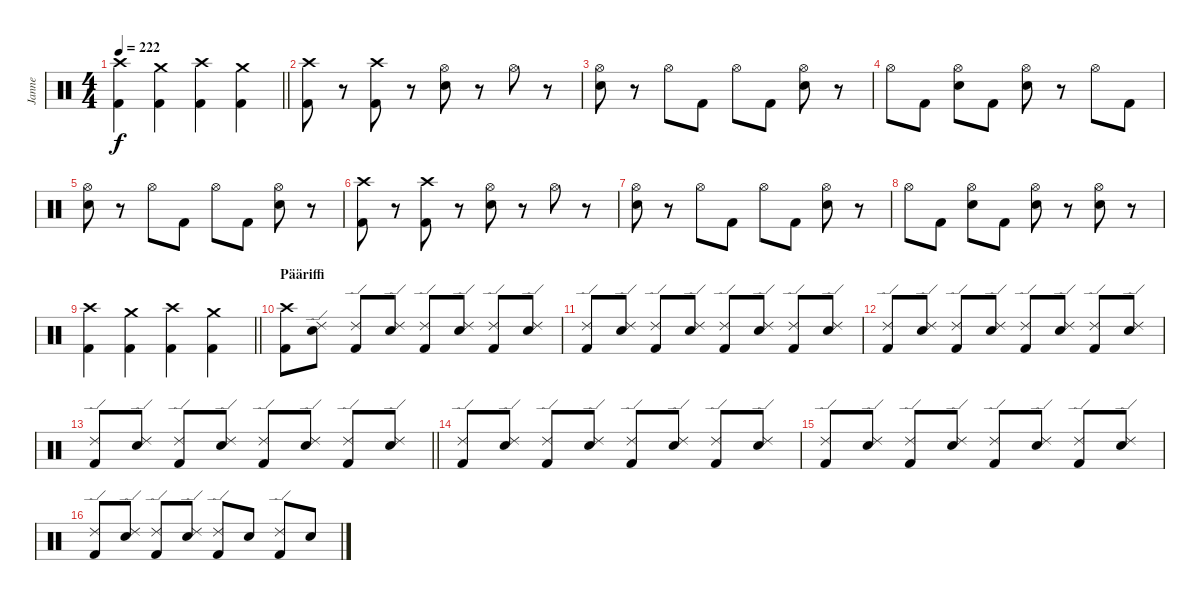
\track ("Janne" "Janne") {instrument percussion}
\staff {score}
\articulation defaults
\ts (4 4)
\tempo 222
\clef neutral
\barLineRight lightlight
\ks c
("Crash high (hit)" "Kick (hit) 2").4{dy f} ("Crash medium (hit)" "Kick (hit) 2").4 ("Crash high (hit)" "Kick (hit) 2").4 ("Crash medium (hit)" "Kick (hit) 2").4 |
("Crash high (hit)" "Kick (hit) 2").8 r.8 ("Crash high (hit)" "Kick (hit) 2").8 r.8 ("Hi-Hat (open)" "Electric Snare (hit)").8 r.8 "Hi-Hat (open)".8 r.8 |
("Hi-Hat (open)" "Electric Snare (hit)").8 r.8 "Hi-Hat (open)".8 "Kick (hit) 2".8 "Hi-Hat (open)".8 "Kick (hit) 2".8 ("Hi-Hat (open)" "Electric Snare (hit)").8 r.8 |
"Hi-Hat (open)".8 "Kick (hit) 2".8 ("Hi-Hat (open)" "Electric Snare (hit)").8 "Kick (hit) 2".8 ("Hi-Hat (open)" "Electric Snare (hit)").8 r.8 "Hi-Hat (open)".8 "Kick (hit) 2".8 |
("Hi-Hat (open)" "Electric Snare (hit)").8 r.8 "Hi-Hat (open)".8 "Kick (hit) 2".8 "Hi-Hat (open)".8 "Kick (hit) 2".8 ("Hi-Hat (open)" "Electric Snare (hit)").8 r.8 |
("Crash high (hit)" "Kick (hit) 2").8 r.8 ("Crash high (hit)" "Kick (hit) 2").8 r.8 ("Hi-Hat (open)" "Electric Snare (hit)").8 r.8 "Hi-Hat (open)".8 r.8 |
("Hi-Hat (open)" "Electric Snare (hit)").8 r.8 "Hi-Hat (open)".8 "Kick (hit) 2".8 "Hi-Hat (open)".8 "Kick (hit) 2".8 ("Hi-Hat (open)" "Electric Snare (hit)").8 r.8 |
"Hi-Hat (open)".8 "Kick (hit) 2".8 ("Hi-Hat (open)" "Electric Snare (hit)").8 "Kick (hit) 2".8 ("Hi-Hat (open)" "Electric Snare (hit)").8 r.8 ("Hi-Hat (open)" "Electric Snare (hit)").8 r.8 |
\barLineRight lightlight
("Crash high (hit)" "Kick (hit) 2").4 ("Crash medium (hit)" "Kick (hit) 2").4 ("Crash high (hit)" "Kick (hit) 2").4 ("Crash medium (hit)" "Kick (hit) 2").4 |
\section ("" "Pääriffi")
("Crash high (hit)" "Kick (hit) 2").8 ("Ride (edge) 2" "Electric Snare (hit)").8 ("Ride (edge) 2" "Kick (hit) 2").8 ("Ride (edge) 2" "Electric Snare (hit)").8 ("Ride (edge) 2" "Kick (hit) 2").8 ("Ride (edge) 2" "Electric Snare (hit)").8 ("Ride (edge) 2" "Kick (hit) 2").8 ("Ride (edge) 2" "Electric Snare (hit)").8 |
("Ride (edge) 2" "Kick (hit) 2").8 ("Ride (edge) 2" "Electric Snare (hit)").8 ("Ride (edge) 2" "Kick (hit) 2").8 ("Ride (edge) 2" "Electric Snare (hit)").8 ("Ride (edge) 2" "Kick (hit) 2").8 ("Ride (edge) 2" "Electric Snare (hit)").8 ("Ride (edge) 2" "Kick (hit) 2").8 ("Ride (edge) 2" "Electric Snare (hit)").8 |
("Ride (edge) 2" "Kick (hit) 2").8 ("Ride (edge) 2" "Electric Snare (hit)").8 ("Ride (edge) 2" "Kick (hit) 2").8 ("Ride (edge) 2" "Electric Snare (hit)").8 ("Ride (edge) 2" "Kick (hit) 2").8 ("Ride (edge) 2" "Electric Snare (hit)").8 ("Ride (edge) 2" "Kick (hit) 2").8 ("Ride (edge) 2" "Electric Snare (hit)").8 |
\barLineRight lightlight
("Ride (edge) 2" "Kick (hit) 2").8 ("Ride (edge) 2" "Electric Snare (hit)").8 ("Ride (edge) 2" "Kick (hit) 2").8 ("Ride (edge) 2" "Electric Snare (hit)").8 ("Ride (edge) 2" "Kick (hit) 2").8 ("Ride (edge) 2" "Electric Snare (hit)").8 ("Ride (edge) 2" "Kick (hit) 2").8 ("Ride (edge) 2" "Electric Snare (hit)").8 |
("Ride (edge) 2" "Kick (hit) 2").8 ("Ride (edge) 2" "Electric Snare (hit)").8 ("Ride (edge) 2" "Kick (hit) 2").8 ("Ride (edge) 2" "Electric Snare (hit)").8 ("Ride (edge) 2" "Kick (hit) 2").8 ("Ride (edge) 2" "Electric Snare (hit)").8 ("Ride (edge) 2" "Kick (hit) 2").8 ("Ride (edge) 2" "Electric Snare (hit)").8 |
("Ride (edge) 2" "Kick (hit) 2").8 ("Ride (edge) 2" "Electric Snare (hit)").8 ("Ride (edge) 2" "Kick (hit) 2").8 ("Ride (edge) 2" "Electric Snare (hit)").8 ("Ride (edge) 2" "Kick (hit) 2").8 ("Ride (edge) 2" "Electric Snare (hit)").8 ("Ride (edge) 2" "Kick (hit) 2").8 ("Ride (edge) 2" "Electric Snare (hit)").8 |
("Ride (edge) 2" "Kick (hit) 2").8 ("Ride (edge) 2" "Electric Snare (hit)").8 ("Ride (edge) 2" "Kick (hit) 2").8 ("Ride (edge) 2" "Electric Snare (hit)").8 ("Ride (edge) 2" "Kick (hit) 2").8 "Electric Snare (hit)".8 ("Ride (edge) 2" "Kick (hit) 2").8 "Electric Snare (hit)".8
